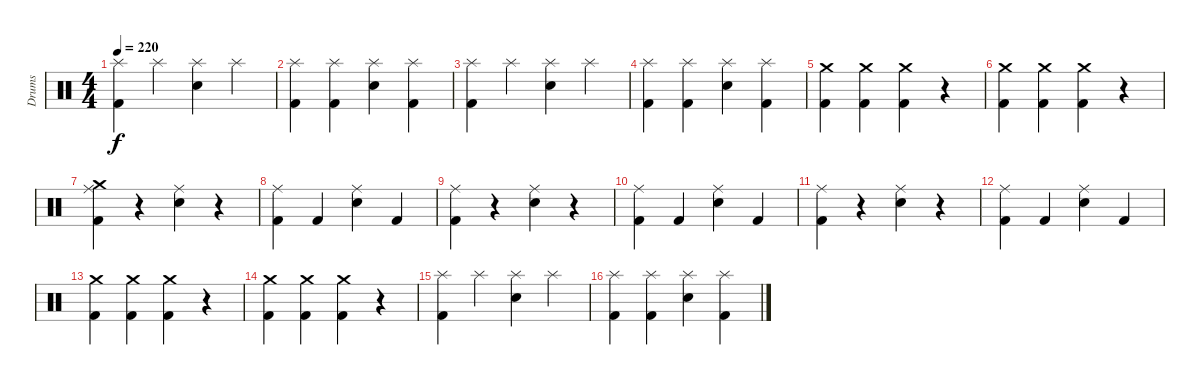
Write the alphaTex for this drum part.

\track ("Drums" "Drums") {instrument percussion}
\staff {score}
\articulation defaults
\ts (4 4)
\tempo 220
\clef neutral
\ks c
("Splash (hit)" "Kick (hit) 2").4{dy f} "Splash (hit)".4 ("Splash (hit)" "Electric Snare (hit)").4 "Splash (hit)".4 |
("Splash (hit)" "Kick (hit) 2").4 ("Splash (hit)" "Kick (hit) 2").4 ("Splash (hit)" "Electric Snare (hit)").4 ("Splash (hit)" "Kick (hit) 2").4 |
("Splash (hit)" "Kick (hit) 2").4 "Splash (hit)".4 ("Splash (hit)" "Electric Snare (hit)").4 "Splash (hit)".4 |
("Splash (hit)" "Kick (hit) 2").4 ("Splash (hit)" "Kick (hit) 2").4 ("Splash (hit)" "Electric Snare (hit)").4 ("Splash (hit)" "Kick (hit) 2").4 |
("Crash medium (hit)" "Kick (hit) 2").4 ("Crash medium (hit)" "Kick (hit) 2").4 ("Crash medium (hit)" "Kick (hit) 2").4 r.4 |
("Crash medium (hit)" "Kick (hit) 2").4 ("Crash medium (hit)" "Kick (hit) 2").4 ("Crash medium (hit)" "Kick (hit) 2").4 r.4 |
("Crash medium (hit)" "Ride (middle)" "Kick (hit) 2").4 r.4 ("Ride (middle)" "Electric Snare (hit)").4 r.4 |
("Ride (middle)" "Kick (hit) 2").4 "Kick (hit) 2".4 ("Ride (middle)" "Electric Snare (hit)").4 "Kick (hit) 2".4 |
("Ride (middle)" "Kick (hit) 2").4 r.4 ("Ride (middle)" "Electric Snare (hit)").4 r.4 |
("Ride (middle)" "Kick (hit) 2").4 "Kick (hit) 2".4 ("Ride (middle)" "Electric Snare (hit)").4 "Kick (hit) 2".4 |
("Ride (middle)" "Kick (hit) 2").4 r.4 ("Ride (middle)" "Electric Snare (hit)").4 r.4 |
("Ride (middle)" "Kick (hit) 2").4 "Kick (hit) 2".4 ("Ride (middle)" "Electric Snare (hit)").4 "Kick (hit) 2".4 |
("Crash medium (hit)" "Kick (hit) 2").4 ("Crash medium (hit)" "Kick (hit) 2").4 ("Crash medium (hit)" "Kick (hit) 2").4 r.4 |
("Crash medium (hit)" "Kick (hit) 2").4 ("Crash medium (hit)" "Kick (hit) 2").4 ("Crash medium (hit)" "Kick (hit) 2").4 r.4 |
("Splash (hit)" "Kick (hit) 2").4 "Splash (hit)".4 ("Splash (hit)" "Electric Snare (hit)").4 "Splash (hit)".4 |
("Splash (hit)" "Kick (hit) 2").4 ("Splash (hit)" "Kick (hit) 2").4 ("Splash (hit)" "Electric Snare (hit)").4 ("Splash (hit)" "Kick (hit) 2").4
